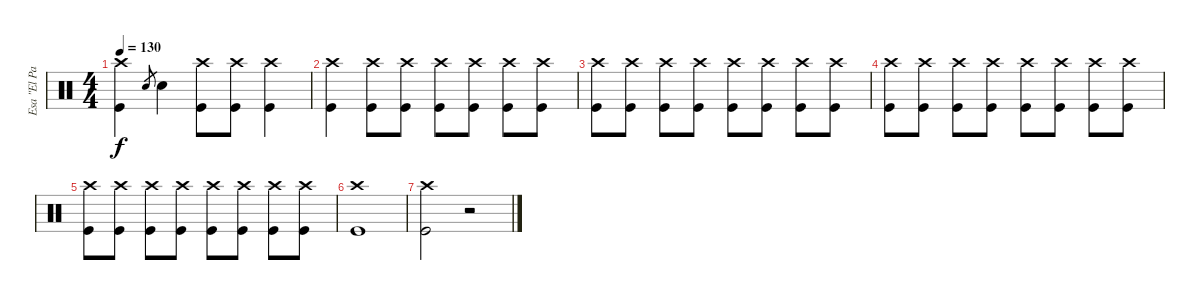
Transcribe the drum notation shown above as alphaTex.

\track ("Esa \"El Pasaderia\" Palosaari" "Esa \"El Pa") {instrument percussion}
\staff {score}
\articulation defaults
\ts (4 4)
\tempo 130
\clef neutral
\ks c
("Crash high (hit)" "Kick (hit)").4{dy f} "Snare (hit) 2".8{gr} "Snare (hit) 2".4 ("Crash high (hit)" "Kick (hit)").8 ("Crash high (hit)" "Kick (hit)").8 ("Crash high (hit)" "Kick (hit)").4 |
("Crash high (hit)" "Kick (hit)").4 ("Crash high (hit)" "Kick (hit)").8 ("Crash high (hit)" "Kick (hit)").8 ("Crash high (hit)" "Kick (hit)").8 ("Crash high (hit)" "Kick (hit)").8 ("Crash high (hit)" "Kick (hit)").8 ("Crash high (hit)" "Kick (hit)").8 |
("Crash high (hit)" "Kick (hit)").8 ("Crash high (hit)" "Kick (hit)").8 ("Crash high (hit)" "Kick (hit)").8 ("Crash high (hit)" "Kick (hit)").8 ("Crash high (hit)" "Kick (hit)").8 ("Crash high (hit)" "Kick (hit)").8 ("Crash high (hit)" "Kick (hit)").8 ("Crash high (hit)" "Kick (hit)").8 |
("Crash high (hit)" "Kick (hit)").8 ("Crash high (hit)" "Kick (hit)").8 ("Crash high (hit)" "Kick (hit)").8 ("Crash high (hit)" "Kick (hit)").8 ("Crash high (hit)" "Kick (hit)").8 ("Crash high (hit)" "Kick (hit)").8 ("Crash high (hit)" "Kick (hit)").8 ("Crash high (hit)" "Kick (hit)").8 |
("Crash high (hit)" "Kick (hit)").8 ("Crash high (hit)" "Kick (hit)").8 ("Crash high (hit)" "Kick (hit)").8 ("Crash high (hit)" "Kick (hit)").8 ("Crash high (hit)" "Kick (hit)").8 ("Crash high (hit)" "Kick (hit)").8 ("Crash high (hit)" "Kick (hit)").8 ("Crash high (hit)" "Kick (hit)").8 |
("Crash high (hit)" "Kick (hit)").1 |
("Crash high (hit)" "Kick (hit)").2 r.2
